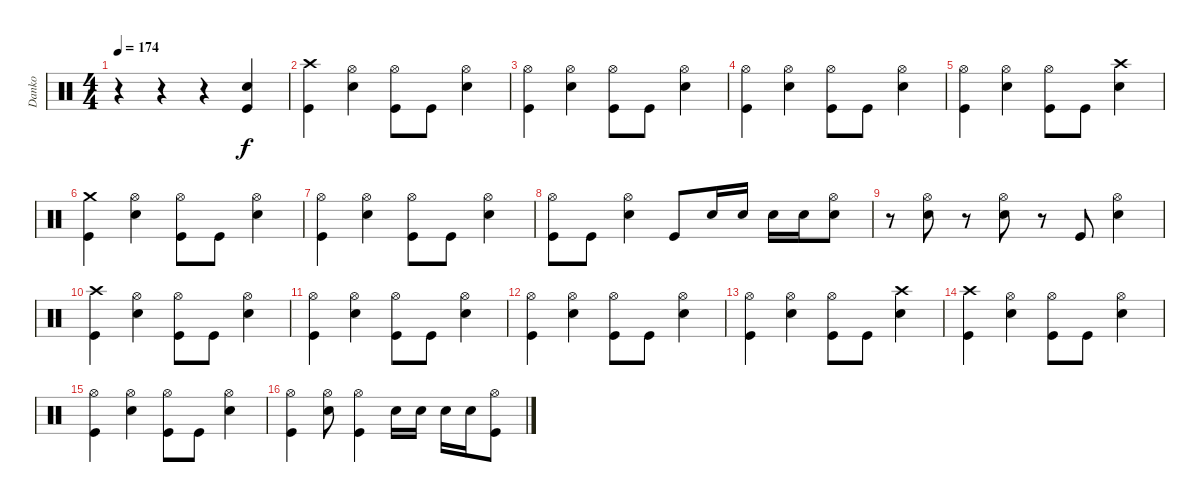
\track ("Danko" "Danko") {instrument percussion}
\staff {score}
\articulation defaults
\ts (4 4)
\tempo 174
\clef neutral
\ks c
r.4{dy f} r.4 r.4 ("Snare (hit) 2" "Kick (hit)").4 |
("Crash high (hit)" "Kick (hit)").4 ("Hi-Hat (open)" "Snare (hit) 2").4 ("Hi-Hat (open)" "Kick (hit)").8 "Kick (hit)".8 ("Hi-Hat (open)" "Snare (hit) 2").4 |
("Hi-Hat (open)" "Kick (hit)").4 ("Hi-Hat (open)" "Snare (hit) 2").4 ("Hi-Hat (open)" "Kick (hit)").8 "Kick (hit)".8 ("Hi-Hat (open)" "Snare (hit) 2").4 |
("Hi-Hat (open)" "Kick (hit)").4 ("Hi-Hat (open)" "Snare (hit) 2").4 ("Hi-Hat (open)" "Kick (hit)").8 "Kick (hit)".8 ("Hi-Hat (open)" "Snare (hit) 2").4 |
("Hi-Hat (open)" "Kick (hit)").4 ("Hi-Hat (open)" "Snare (hit) 2").4 ("Hi-Hat (open)" "Kick (hit)").8 "Kick (hit)".8 ("Crash high (hit)" "Snare (hit) 2").4 |
("Crash medium (hit)" "Kick (hit)").4 ("Hi-Hat (open)" "Snare (hit) 2").4 ("Hi-Hat (open)" "Kick (hit)").8 "Kick (hit)".8 ("Hi-Hat (open)" "Snare (hit) 2").4 |
("Hi-Hat (open)" "Kick (hit)").4 ("Hi-Hat (open)" "Snare (hit) 2").4 ("Hi-Hat (open)" "Kick (hit)").8 "Kick (hit)".8 ("Hi-Hat (open)" "Snare (hit) 2").4 |
("Hi-Hat (open)" "Kick (hit)").8 "Kick (hit)".8 ("Hi-Hat (open)" "Snare (hit) 2").4 "Kick (hit)".8 "Snare (hit) 2".16 "Snare (hit) 2".16 "Snare (hit) 2".16 "Snare (hit) 2".16 ("Hi-Hat (open)" "Snare (hit) 2").8 |
r.8 ("Hi-Hat (open)" "Snare (hit) 2").8 r.8 ("Hi-Hat (open)" "Snare (hit) 2").8 r.8 "Kick (hit)".8 ("Hi-Hat (open)" "Snare (hit) 2").4 |
("Crash high (hit)" "Kick (hit)").4 ("Hi-Hat (open)" "Snare (hit) 2").4 ("Hi-Hat (open)" "Kick (hit)").8 "Kick (hit)".8 ("Hi-Hat (open)" "Snare (hit) 2").4 |
("Hi-Hat (open)" "Kick (hit)").4 ("Hi-Hat (open)" "Snare (hit) 2").4 ("Hi-Hat (open)" "Kick (hit)").8 "Kick (hit)".8 ("Hi-Hat (open)" "Snare (hit) 2").4 |
("Hi-Hat (open)" "Kick (hit)").4 ("Hi-Hat (open)" "Snare (hit) 2").4 ("Hi-Hat (open)" "Kick (hit)").8 "Kick (hit)".8 ("Hi-Hat (open)" "Snare (hit) 2").4 |
("Hi-Hat (open)" "Kick (hit)").4 ("Hi-Hat (open)" "Snare (hit) 2").4 ("Hi-Hat (open)" "Kick (hit)").8 "Kick (hit)".8 ("Crash high (hit)" "Snare (hit) 2").4 |
("Crash high (hit)" "Kick (hit)").4 ("Hi-Hat (open)" "Snare (hit) 2").4 ("Hi-Hat (open)" "Kick (hit)").8 "Kick (hit)".8 ("Hi-Hat (open)" "Snare (hit) 2").4 |
("Hi-Hat (open)" "Kick (hit)").4 ("Hi-Hat (open)" "Snare (hit) 2").4 ("Hi-Hat (open)" "Kick (hit)").8 "Kick (hit)".8 ("Hi-Hat (open)" "Snare (hit) 2").4 |
("Hi-Hat (open)" "Kick (hit)").4 ("Hi-Hat (open)" "Snare (hit) 2").8 ("Hi-Hat (open)" "Kick (hit)").4 "Snare (hit) 2".16 "Snare (hit) 2".16 "Snare (hit) 2".16 "Snare (hit) 2".16 ("Hi-Hat (open)" "Kick (hit)").8
